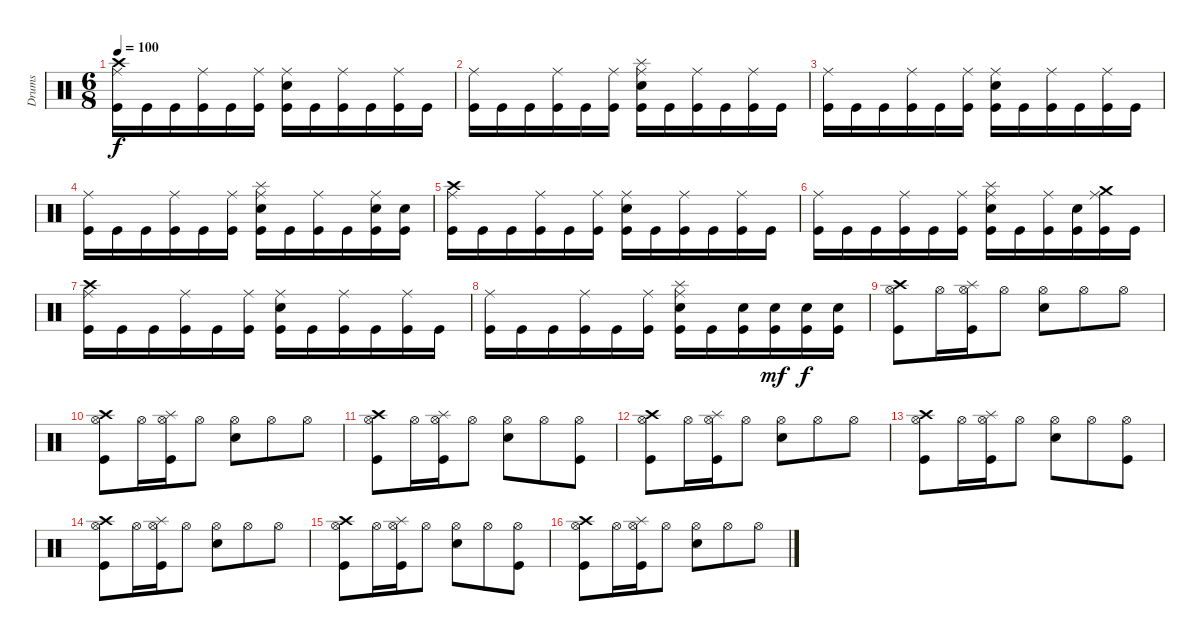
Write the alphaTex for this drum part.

\track ("Drums" "Drums") {instrument percussion}
\staff {score}
\articulation defaults
\ts (6 8)
\tempo 100
\clef neutral
\ks c
("Crash high (hit)" "Ride (middle)" "Kick (hit)").16{dy f} "Kick (hit)".16 "Kick (hit)".16 ("Ride (middle)" "Kick (hit)").16 "Kick (hit)".16 ("Ride (middle)" "Kick (hit)").16 ("Ride (middle)" "Electric Snare (hit)" "Kick (hit)").16 "Kick (hit)".16 ("Ride (middle)" "Kick (hit)").16 "Kick (hit)".16 ("Ride (middle)" "Kick (hit)").16 "Kick (hit)".16 |
("Ride (middle)" "Kick (hit)").16 "Kick (hit)".16 "Kick (hit)".16 ("Ride (middle)" "Kick (hit)").16 "Kick (hit)".16 ("Ride (middle)" "Kick (hit)").16 ("Splash (hit)" "Ride (middle)" "Electric Snare (hit)" "Kick (hit)").16 "Kick (hit)".16 ("Ride (middle)" "Kick (hit)").16 "Kick (hit)".16 ("Ride (middle)" "Kick (hit)").16 "Kick (hit)".16 |
("Ride (middle)" "Kick (hit)").16 "Kick (hit)".16 "Kick (hit)".16 ("Ride (middle)" "Kick (hit)").16 "Kick (hit)".16 ("Ride (middle)" "Kick (hit)").16 ("Ride (middle)" "Electric Snare (hit)" "Kick (hit)").16 "Kick (hit)".16 ("Ride (middle)" "Kick (hit)").16 "Kick (hit)".16 ("Ride (middle)" "Kick (hit)").16 "Kick (hit)".16 |
("Ride (middle)" "Kick (hit)").16 "Kick (hit)".16 "Kick (hit)".16 ("Ride (middle)" "Kick (hit)").16 "Kick (hit)".16 ("Ride (middle)" "Kick (hit)").16 ("Splash (hit)" "Ride (middle)" "Electric Snare (hit)" "Kick (hit)").16 "Kick (hit)".16 ("Ride (middle)" "Kick (hit)").16 "Kick (hit)".16 ("Ride (middle)" "Electric Snare (hit)" "Kick (hit)").16 ("Electric Snare (hit)" "Kick (hit)").16 |
("Crash high (hit)" "Ride (middle)" "Kick (hit)").16 "Kick (hit)".16 "Kick (hit)".16 ("Ride (middle)" "Kick (hit)").16 "Kick (hit)".16 ("Ride (middle)" "Kick (hit)").16 ("Ride (middle)" "Electric Snare (hit)" "Kick (hit)").16 "Kick (hit)".16 ("Ride (middle)" "Kick (hit)").16 "Kick (hit)".16 ("Ride (middle)" "Kick (hit)").16 "Kick (hit)".16 |
("Ride (middle)" "Kick (hit)").16 "Kick (hit)".16 "Kick (hit)".16 ("Ride (middle)" "Kick (hit)").16 "Kick (hit)".16 ("Ride (middle)" "Kick (hit)").16 ("Splash (hit)" "Ride (middle)" "Electric Snare (hit)" "Kick (hit)").16 "Kick (hit)".16 ("Ride (middle)" "Kick (hit)").16 ("Electric Snare (hit)" "Kick (hit)").16 ("Crash medium (hit)" "Ride (middle)" "Kick (hit)").16 "Kick (hit)".16 |
("Crash high (hit)" "Ride (middle)" "Kick (hit)").16 "Kick (hit)".16 "Kick (hit)".16 ("Ride (middle)" "Kick (hit)").16 "Kick (hit)".16 ("Ride (middle)" "Kick (hit)").16 ("Ride (middle)" "Electric Snare (hit)" "Kick (hit)").16 "Kick (hit)".16 ("Ride (middle)" "Kick (hit)").16 "Kick (hit)".16 ("Ride (middle)" "Kick (hit)").16 "Kick (hit)".16 |
("Ride (middle)" "Kick (hit)").16 "Kick (hit)".16 "Kick (hit)".16 ("Ride (middle)" "Kick (hit)").16 "Kick (hit)".16 ("Ride (middle)" "Kick (hit)").16 ("Splash (hit)" "Ride (middle)" "Electric Snare (hit)" "Kick (hit)").16 "Kick (hit)".16 ("Electric Snare (hit)" "Kick (hit)").16 ("Electric Snare (hit)" "Kick (hit)").16{dy mf} ("Electric Snare (hit)" "Kick (hit)").16{dy f} ("Electric Snare (hit)" "Kick (hit)").16 |
("Crash high (hit)" "Hi-Hat (open)" "Kick (hit)").8 "Hi-Hat (open)".16 ("Splash (hit)" "Hi-Hat (open)" "Kick (hit)").16 "Hi-Hat (open)".8 ("Hi-Hat (open)" "Electric Snare (hit)").8 "Hi-Hat (open)".8 "Hi-Hat (open)".8 |
("Crash high (hit)" "Hi-Hat (open)" "Kick (hit)").8 "Hi-Hat (open)".16 ("Splash (hit)" "Hi-Hat (open)" "Kick (hit)").16 "Hi-Hat (open)".8 ("Hi-Hat (open)" "Electric Snare (hit)").8 "Hi-Hat (open)".8 "Hi-Hat (open)".8 |
("Crash high (hit)" "Hi-Hat (open)" "Kick (hit)").8 "Hi-Hat (open)".16 ("Splash (hit)" "Hi-Hat (open)" "Kick (hit)").16 "Hi-Hat (open)".8 ("Hi-Hat (open)" "Electric Snare (hit)").8 "Hi-Hat (open)".8 ("Hi-Hat (open)" "Kick (hit)").8 |
("Crash high (hit)" "Hi-Hat (open)" "Kick (hit)").8 "Hi-Hat (open)".16 ("Splash (hit)" "Hi-Hat (open)" "Kick (hit)").16 "Hi-Hat (open)".8 ("Hi-Hat (open)" "Electric Snare (hit)").8 "Hi-Hat (open)".8 "Hi-Hat (open)".8 |
("Crash high (hit)" "Hi-Hat (open)" "Kick (hit)").8 "Hi-Hat (open)".16 ("Splash (hit)" "Hi-Hat (open)" "Kick (hit)").16 "Hi-Hat (open)".8 ("Hi-Hat (open)" "Electric Snare (hit)").8 "Hi-Hat (open)".8 ("Hi-Hat (open)" "Kick (hit)").8 |
("Crash high (hit)" "Hi-Hat (open)" "Kick (hit)").8 "Hi-Hat (open)".16 ("Splash (hit)" "Hi-Hat (open)" "Kick (hit)").16 "Hi-Hat (open)".8 ("Hi-Hat (open)" "Electric Snare (hit)").8 "Hi-Hat (open)".8 "Hi-Hat (open)".8 |
("Crash high (hit)" "Hi-Hat (open)" "Kick (hit)").8 "Hi-Hat (open)".16 ("Splash (hit)" "Hi-Hat (open)" "Kick (hit)").16 "Hi-Hat (open)".8 ("Hi-Hat (open)" "Electric Snare (hit)").8 "Hi-Hat (open)".8 ("Hi-Hat (open)" "Kick (hit)").8 |
("Crash high (hit)" "Hi-Hat (open)" "Kick (hit)").8 "Hi-Hat (open)".16 ("Splash (hit)" "Hi-Hat (open)" "Kick (hit)").16 "Hi-Hat (open)".8 ("Hi-Hat (open)" "Electric Snare (hit)").8 "Hi-Hat (open)".8 "Hi-Hat (open)".8
